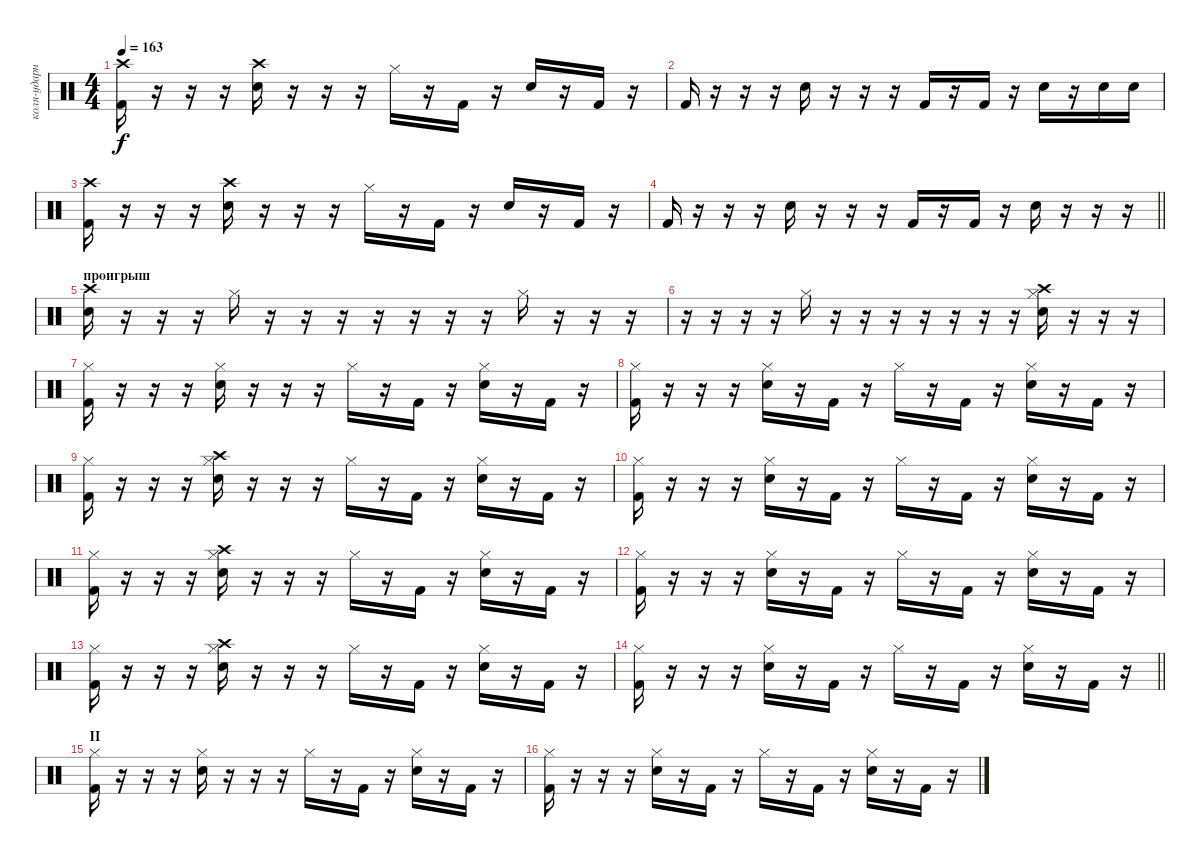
\track ("коля-ударные" "коля-ударн") {instrument percussion}
\staff {score}
\articulation defaults
\ts (4 4)
\tempo 163
\clef neutral
\ks c
("Kick (hit) 2" "Crash high (hit)").16{dy f} r.16 r.16 r.16 ("Electric Snare (hit)" "Crash high (hit)").16 r.16 r.16 r.16 "Hi-Hat (closed)".16 r.16 "Kick (hit) 2".16 r.16 "Electric Snare (hit)".16 r.16 "Kick (hit) 2".16 r.16 |
"Kick (hit) 2".16 r.16 r.16 r.16 "Electric Snare (hit)".16 r.16 r.16 r.16 "Kick (hit) 2".16 r.16 "Kick (hit) 2".16 r.16 "Electric Snare (hit)".16 r.16 "Electric Snare (hit)".16 "Electric Snare (hit)".16 |
("Kick (hit) 2" "Crash high (hit)").16 r.16 r.16 r.16 ("Electric Snare (hit)" "Crash high (hit)").16 r.16 r.16 r.16 "Hi-Hat (closed)".16 r.16 "Kick (hit) 2".16 r.16 "Electric Snare (hit)".16 r.16 "Kick (hit) 2".16 r.16 |
\barLineRight lightlight "Kick (hit) 2".16
r.16 r.16 r.16 "Electric Snare (hit)".16 r.16 r.16 r.16 "Kick (hit) 2".16 r.16 "Kick (hit) 2".16 r.16 "Electric Snare (hit)".16 r.16 r.16 r.16 |
\section ("" "проигрыш")
("Electric Snare (hit)" "Crash high (hit)").16 r.16 r.16 r.16 "Hi-Hat (closed)".16 r.16 r.16 r.16 r.16 r.16 r.16 r.16 "Hi-Hat (closed)".16 r.16 r.16 r.16 |
r.16 r.16 r.16 r.16 "Hi-Hat (closed)".16 r.16 r.16 r.16 r.16 r.16 r.16 r.16 ("Electric Snare (hit)" "Crash high (hit)" "Hi-Hat (closed)").16 r.16 r.16 r.16 |
("Kick (hit) 2" "Hi-Hat (closed)").16 r.16 r.16 r.16 ("Electric Snare (hit)" "Hi-Hat (closed)").16 r.16 r.16 r.16 "Hi-Hat (closed)".16 r.16 "Kick (hit) 2".16 r.16 ("Electric Snare (hit)" "Hi-Hat (closed)").16 r.16 "Kick (hit) 2".16 r.16 |
("Kick (hit) 2" "Hi-Hat (closed)").16 r.16 r.16 r.16 ("Electric Snare (hit)" "Hi-Hat (closed)").16 r.16 "Kick (hit) 2".16 r.16 "Hi-Hat (closed)".16 r.16 "Kick (hit) 2".16 r.16 ("Electric Snare (hit)" "Hi-Hat (closed)").16 r.16 "Kick (hit) 2".16 r.16 |
("Kick (hit) 2" "Hi-Hat (closed)").16 r.16 r.16 r.16 ("Electric Snare (hit)" "Crash high (hit)" "Hi-Hat (closed)").16 r.16 r.16 r.16 "Hi-Hat (closed)".16 r.16 "Kick (hit) 2".16 r.16 ("Electric Snare (hit)" "Hi-Hat (closed)").16 r.16 "Kick (hit) 2".16 r.16 |
("Kick (hit) 2" "Hi-Hat (closed)").16 r.16 r.16 r.16 ("Electric Snare (hit)" "Hi-Hat (closed)").16 r.16 "Kick (hit) 2".16 r.16 "Hi-Hat (closed)".16 r.16 "Kick (hit) 2".16 r.16 ("Electric Snare (hit)" "Hi-Hat (closed)").16 r.16 "Kick (hit) 2".16 r.16 |
("Kick (hit) 2" "Hi-Hat (closed)").16 r.16 r.16 r.16 ("Electric Snare (hit)" "Crash high (hit)" "Hi-Hat (closed)").16 r.16 r.16 r.16 "Hi-Hat (closed)".16 r.16 "Kick (hit) 2".16 r.16 ("Electric Snare (hit)" "Hi-Hat (closed)").16 r.16 "Kick (hit) 2".16 r.16 |
("Kick (hit) 2" "Hi-Hat (closed)").16 r.16 r.16 r.16 ("Electric Snare (hit)" "Hi-Hat (closed)").16 r.16 "Kick (hit) 2".16 r.16 "Hi-Hat (closed)".16 r.16 "Kick (hit) 2".16 r.16 ("Electric Snare (hit)" "Hi-Hat (closed)").16 r.16 "Kick (hit) 2".16 r.16 |
("Kick (hit) 2" "Hi-Hat (closed)").16 r.16 r.16 r.16 ("Electric Snare (hit)" "Crash high (hit)" "Hi-Hat (closed)").16 r.16 r.16 r.16 "Hi-Hat (closed)".16 r.16 "Kick (hit) 2".16 r.16 ("Electric Snare (hit)" "Hi-Hat (closed)").16 r.16 "Kick (hit) 2".16 r.16 |
\barLineRight lightlight
("Kick (hit) 2" "Hi-Hat (closed)").16 r.16 r.16 r.16 ("Electric Snare (hit)" "Hi-Hat (closed)").16 r.16 "Kick (hit) 2".16 r.16 "Hi-Hat (closed)".16 r.16 "Kick (hit) 2".16 r.16 ("Electric Snare (hit)" "Hi-Hat (closed)").16 r.16 "Kick (hit) 2".16 r.16 |
\section ("" "II")
("Kick (hit) 2" "Hi-Hat (closed)").16 r.16 r.16 r.16 ("Electric Snare (hit)" "Hi-Hat (closed)").16 r.16 r.16 r.16 "Hi-Hat (closed)".16 r.16 "Kick (hit) 2".16 r.16 ("Electric Snare (hit)" "Hi-Hat (closed)").16 r.16 "Kick (hit) 2".16 r.16 |
("Kick (hit) 2" "Hi-Hat (closed)").16 r.16 r.16 r.16 ("Electric Snare (hit)" "Hi-Hat (closed)").16 r.16 "Kick (hit) 2".16 r.16 "Hi-Hat (closed)".16 r.16 "Kick (hit) 2".16 r.16 ("Electric Snare (hit)" "Hi-Hat (closed)").16 r.16 "Kick (hit) 2".16 r.16
